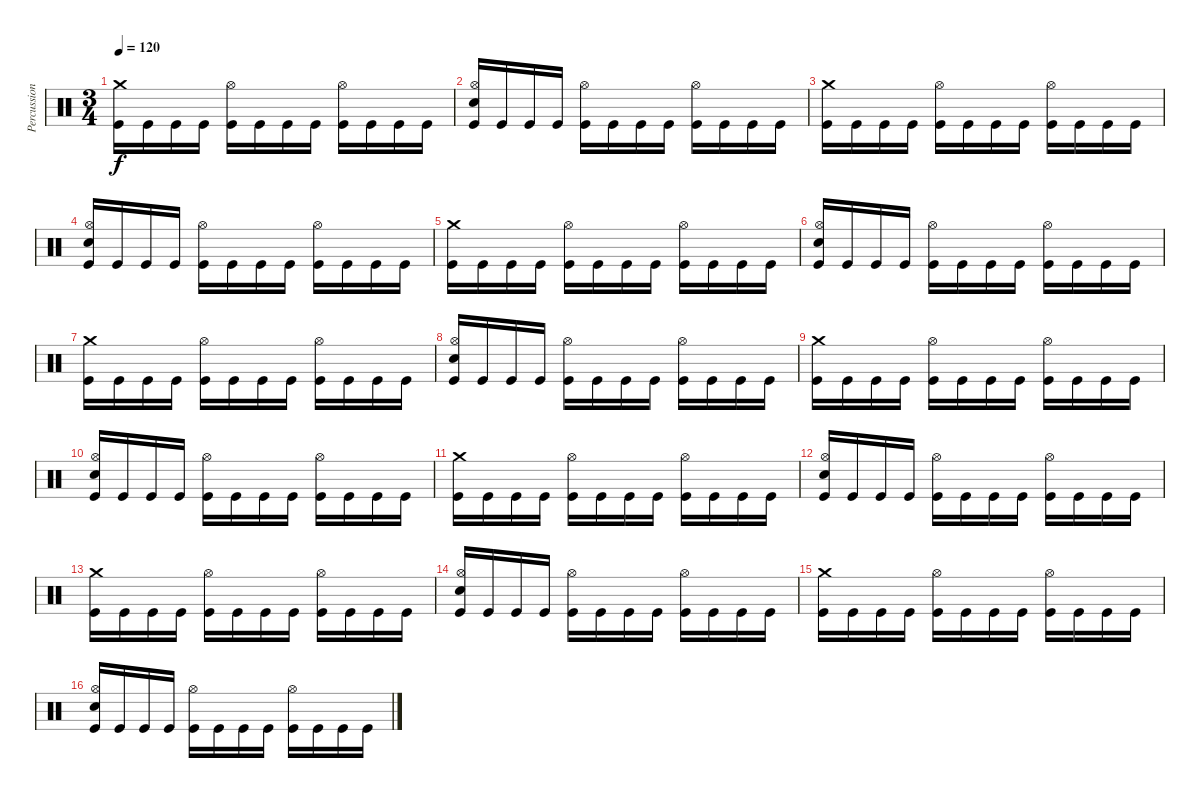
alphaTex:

\track ("Percussion" "Percussion") {instrument percussion}
\staff {score}
\articulation defaults
\ts (3 4)
\tempo 120
\clef neutral
\ks c
("Crash medium (hit)" "Kick (hit)").16{dy f} "Kick (hit)".16 "Kick (hit)".16 "Kick (hit)".16 ("Hi-Hat (open)" "Kick (hit)").16 "Kick (hit)".16 "Kick (hit)".16 "Kick (hit)".16 ("Hi-Hat (open)" "Kick (hit)").16 "Kick (hit)".16 "Kick (hit)".16 "Kick (hit)".16 |
("Hi-Hat (open)" "Snare (hit) 2" "Kick (hit)").16 "Kick (hit)".16 "Kick (hit)".16 "Kick (hit)".16 ("Hi-Hat (open)" "Kick (hit)").16 "Kick (hit)".16 "Kick (hit)".16 "Kick (hit)".16 ("Hi-Hat (open)" "Kick (hit)").16 "Kick (hit)".16 "Kick (hit)".16 "Kick (hit)".16 |
("Crash medium (hit)" "Kick (hit)").16 "Kick (hit)".16 "Kick (hit)".16 "Kick (hit)".16 ("Hi-Hat (open)" "Kick (hit)").16 "Kick (hit)".16 "Kick (hit)".16 "Kick (hit)".16 ("Hi-Hat (open)" "Kick (hit)").16 "Kick (hit)".16 "Kick (hit)".16 "Kick (hit)".16 |
("Hi-Hat (open)" "Snare (hit) 2" "Kick (hit)").16 "Kick (hit)".16 "Kick (hit)".16 "Kick (hit)".16 ("Hi-Hat (open)" "Kick (hit)").16 "Kick (hit)".16 "Kick (hit)".16 "Kick (hit)".16 ("Hi-Hat (open)" "Kick (hit)").16 "Kick (hit)".16 "Kick (hit)".16 "Kick (hit)".16 |
("Crash medium (hit)" "Kick (hit)").16 "Kick (hit)".16 "Kick (hit)".16 "Kick (hit)".16 ("Hi-Hat (open)" "Kick (hit)").16 "Kick (hit)".16 "Kick (hit)".16 "Kick (hit)".16 ("Hi-Hat (open)" "Kick (hit)").16 "Kick (hit)".16 "Kick (hit)".16 "Kick (hit)".16 |
("Hi-Hat (open)" "Snare (hit) 2" "Kick (hit)").16 "Kick (hit)".16 "Kick (hit)".16 "Kick (hit)".16 ("Hi-Hat (open)" "Kick (hit)").16 "Kick (hit)".16 "Kick (hit)".16 "Kick (hit)".16 ("Hi-Hat (open)" "Kick (hit)").16 "Kick (hit)".16 "Kick (hit)".16 "Kick (hit)".16 |
("Crash medium (hit)" "Kick (hit)").16 "Kick (hit)".16 "Kick (hit)".16 "Kick (hit)".16 ("Hi-Hat (open)" "Kick (hit)").16 "Kick (hit)".16 "Kick (hit)".16 "Kick (hit)".16 ("Hi-Hat (open)" "Kick (hit)").16 "Kick (hit)".16 "Kick (hit)".16 "Kick (hit)".16 |
("Hi-Hat (open)" "Snare (hit) 2" "Kick (hit)").16 "Kick (hit)".16 "Kick (hit)".16 "Kick (hit)".16 ("Hi-Hat (open)" "Kick (hit)").16 "Kick (hit)".16 "Kick (hit)".16 "Kick (hit)".16 ("Hi-Hat (open)" "Kick (hit)").16 "Kick (hit)".16 "Kick (hit)".16 "Kick (hit)".16 |
("Crash medium (hit)" "Kick (hit)").16 "Kick (hit)".16 "Kick (hit)".16 "Kick (hit)".16 ("Hi-Hat (open)" "Kick (hit)").16 "Kick (hit)".16 "Kick (hit)".16 "Kick (hit)".16 ("Hi-Hat (open)" "Kick (hit)").16 "Kick (hit)".16 "Kick (hit)".16 "Kick (hit)".16 |
("Hi-Hat (open)" "Snare (hit) 2" "Kick (hit)").16 "Kick (hit)".16 "Kick (hit)".16 "Kick (hit)".16 ("Hi-Hat (open)" "Kick (hit)").16 "Kick (hit)".16 "Kick (hit)".16 "Kick (hit)".16 ("Hi-Hat (open)" "Kick (hit)").16 "Kick (hit)".16 "Kick (hit)".16 "Kick (hit)".16 |
("Crash medium (hit)" "Kick (hit)").16 "Kick (hit)".16 "Kick (hit)".16 "Kick (hit)".16 ("Hi-Hat (open)" "Kick (hit)").16 "Kick (hit)".16 "Kick (hit)".16 "Kick (hit)".16 ("Hi-Hat (open)" "Kick (hit)").16 "Kick (hit)".16 "Kick (hit)".16 "Kick (hit)".16 |
("Hi-Hat (open)" "Snare (hit) 2" "Kick (hit)").16 "Kick (hit)".16 "Kick (hit)".16 "Kick (hit)".16 ("Hi-Hat (open)" "Kick (hit)").16 "Kick (hit)".16 "Kick (hit)".16 "Kick (hit)".16 ("Hi-Hat (open)" "Kick (hit)").16 "Kick (hit)".16 "Kick (hit)".16 "Kick (hit)".16 |
("Crash medium (hit)" "Kick (hit)").16 "Kick (hit)".16 "Kick (hit)".16 "Kick (hit)".16 ("Hi-Hat (open)" "Kick (hit)").16 "Kick (hit)".16 "Kick (hit)".16 "Kick (hit)".16 ("Hi-Hat (open)" "Kick (hit)").16 "Kick (hit)".16 "Kick (hit)".16 "Kick (hit)".16 |
("Hi-Hat (open)" "Snare (hit) 2" "Kick (hit)").16 "Kick (hit)".16 "Kick (hit)".16 "Kick (hit)".16 ("Hi-Hat (open)" "Kick (hit)").16 "Kick (hit)".16 "Kick (hit)".16 "Kick (hit)".16 ("Hi-Hat (open)" "Kick (hit)").16 "Kick (hit)".16 "Kick (hit)".16 "Kick (hit)".16 |
("Crash medium (hit)" "Kick (hit)").16 "Kick (hit)".16 "Kick (hit)".16 "Kick (hit)".16 ("Hi-Hat (open)" "Kick (hit)").16 "Kick (hit)".16 "Kick (hit)".16 "Kick (hit)".16 ("Hi-Hat (open)" "Kick (hit)").16 "Kick (hit)".16 "Kick (hit)".16 "Kick (hit)".16 |
("Hi-Hat (open)" "Snare (hit) 2" "Kick (hit)").16 "Kick (hit)".16 "Kick (hit)".16 "Kick (hit)".16 ("Hi-Hat (open)" "Kick (hit)").16 "Kick (hit)".16 "Kick (hit)".16 "Kick (hit)".16 ("Hi-Hat (open)" "Kick (hit)").16 "Kick (hit)".16 "Kick (hit)".16 "Kick (hit)".16
